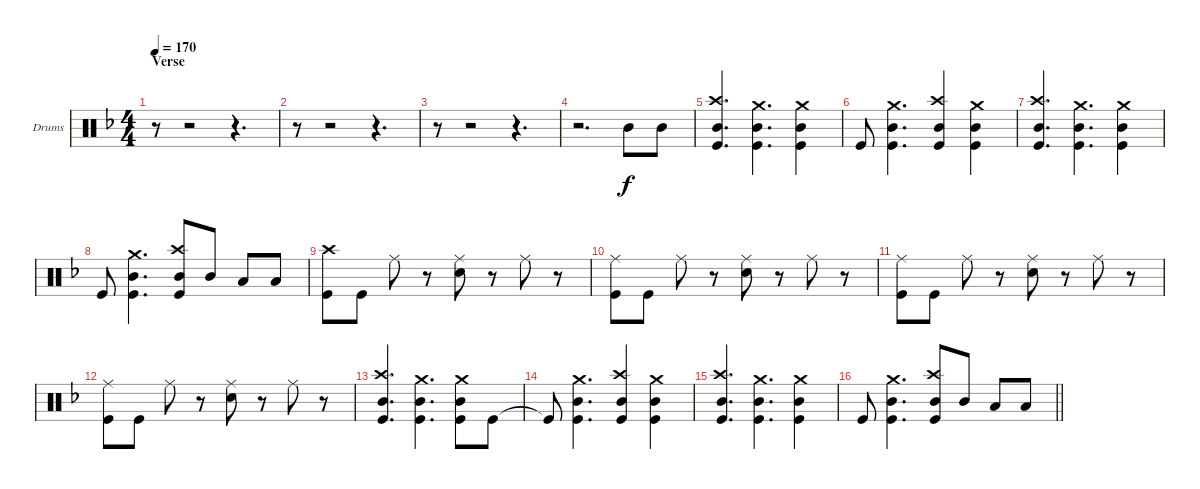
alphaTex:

\bracketExtendMode groupsimilarinstruments
\firstSystemTrackNameOrientation horizontal
\otherSystemsTrackNameOrientation horizontal
\track ("Drumkit" "Drums") {instrument percussion}
\staff {score}
\articulation defaults
\ts (4 4)
\section ("" "Verse")
\tempo 170
\clef neutral
\scale
0.2625
\ks dminor
r.8{dy f} r.2 r.4{d} |
\scale
0.2625 r.8 r.2 r.4{d} |
\scale
0.337621 r.8 r.2 r.4{d} |
\scale
0.321543 r.2{d} "Mid Tom (hit)".8 "Mid Tom (hit)".8 |
\scale
0.340836 ("Crash high (hit)" "Mid Tom (hit)" "Kick (hit)").4{d} ("Crash medium (hit)" "Mid Tom (hit)" "Kick (hit)").4{d} ("Crash medium (hit)" "Mid Tom (hit)" "Kick (hit)").4 |
\scale
0.326923 "Kick (hit)".8 ("Crash medium (hit)" "Mid Tom (hit)" "Kick (hit)").4{d} ("Crash high (hit)" "Mid Tom (hit)" "Kick (hit)").4 ("Crash medium (hit)" "Mid Tom (hit)" "Kick (hit)").4 |
\scale
0.291209 ("Crash high (hit)" "Mid Tom (hit)" "Kick (hit)").4{d} ("Crash medium (hit)" "Mid Tom (hit)" "Kick (hit)").4{d} ("Crash medium (hit)" "Mid Tom (hit)" "Kick (hit)").4 |
\scale
0.381868 "Kick (hit)".8 ("Crash medium (hit)" "Mid Tom (hit)" "Kick (hit)").4{d} ("Crash high (hit)" "Mid Tom (hit)" "Kick (hit)").8 "Mid Tom (hit)".8 "Low Tom (hit)".8 "Low Tom (hit)".8 |
\scale
0.333333 ("Crash high (hit)" "Kick (hit)").8 "Kick (hit)".8 "Ride (middle)".8 r.8 ("Ride (middle)" "Snare (hit) 2").8 r.8 "Ride (middle)".8 r.8 |
\scale
0.333333 ("Ride (middle)" "Kick (hit)").8 "Kick (hit)".8 "Ride (middle)".8 r.8 ("Ride (middle)" "Snare (hit) 2").8 r.8 "Ride (middle)".8 r.8 |
\scale
0.333333 ("Ride (middle)" "Kick (hit)").8 "Kick (hit)".8 "Ride (middle)".8 r.8 ("Ride (middle)" "Snare (hit) 2").8 r.8 "Ride (middle)".8 r.8 |
\scale
0.403023 ("Ride (middle)" "Kick (hit)").8 "Kick (hit)".8 "Ride (middle)".8 r.8 ("Ride (middle)" "Snare (hit) 2").8 r.8 "Ride (middle)".8 r.8 |
\scale
0.297229 ("Crash high (hit)" "Mid Tom (hit)" "Kick (hit)").4{d} ("Crash medium (hit)" "Mid Tom (hit)" "Kick (hit)").4{d} ("Crash medium (hit)" "Mid Tom (hit)" "Kick (hit)").8 "Kick (hit)".8 |
\scale
0.299748 "Kick (hit)"{t}.8 ("Crash medium (hit)" "Mid Tom (hit)" "Kick (hit)").4{d} ("Crash high (hit)" "Mid Tom (hit)" "Kick (hit)").4 ("Crash medium (hit)" "Mid Tom (hit)" "Kick (hit)").4 |
\scale
0.261728 ("Crash high (hit)" "Mid Tom (hit)" "Kick (hit)").4{d} ("Crash medium (hit)" "Mid Tom (hit)" "Kick (hit)").4{d} ("Crash medium (hit)" "Mid Tom (hit)" "Kick (hit)").4 |
\scale
0.34321
\barLineRight lightlight "Kick (hit)".8
("Crash medium (hit)" "Mid Tom (hit)" "Kick (hit)").4{d} ("Crash high (hit)" "Mid Tom (hit)" "Kick (hit)").8 "Mid Tom (hit)".8 "Low Tom (hit)".8 "Low Tom (hit)".8
